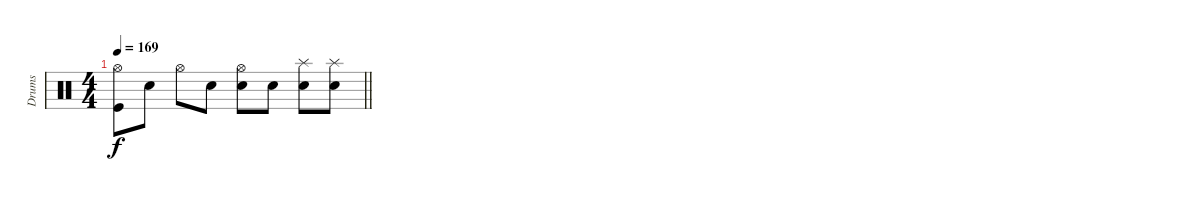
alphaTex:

\track ("Drums" "Drums") {instrument percussion}
\staff
\articulation defaults
\ts (4 4)
\tempo 169
\clef neutral
\barLineRight lightlight
\ks c
("Hi-Hat (open)" "Kick (hit)").8{dy f} "Electric Snare (hit)".8 "Hi-Hat (open)".8 "Electric Snare (hit)".8 ("Hi-Hat (open)" "Electric Snare (hit)").8 "Electric Snare (hit)".8 ("Splash (hit)" "Electric Snare (hit)").8 ("Splash (hit)" "Electric Snare (hit)").8
